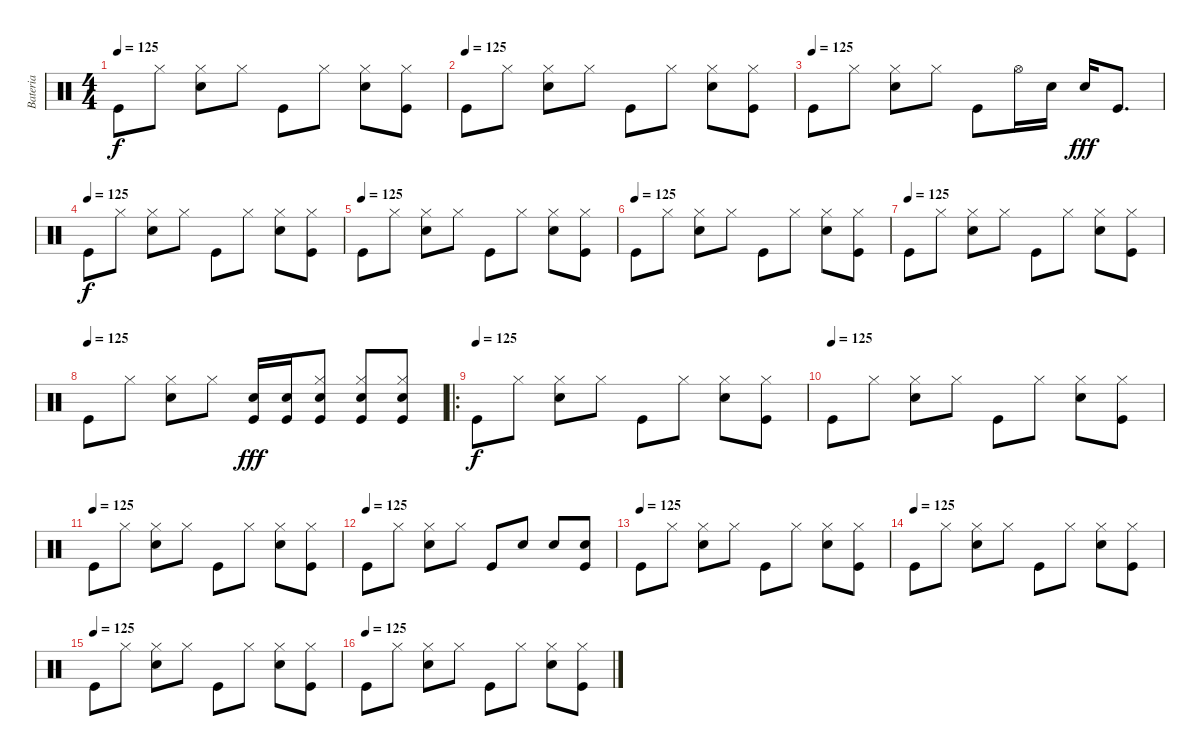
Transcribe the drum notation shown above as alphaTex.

\track ("Bateria" "Bateria") {instrument percussion}
\staff {score}
\articulation defaults
\ts (4 4)
\tempo 125
\clef neutral
\ks c "Kick (hit)".8{dy f} "Hi-Hat (closed)".8
("Snare (hit) 2" "Hi-Hat (closed)").8 "Hi-Hat (closed)".8 "Kick (hit)".8 "Hi-Hat (closed)".8 ("Snare (hit) 2" "Hi-Hat (closed)").8 ("Hi-Hat (closed)" "Kick (hit)").8 |
\tempo (125)
"Kick (hit)".8 "Hi-Hat (closed)".8 ("Snare (hit) 2" "Hi-Hat (closed)").8 "Hi-Hat (closed)".8 "Kick (hit)".8 "Hi-Hat (closed)".8 ("Snare (hit) 2" "Hi-Hat (closed)").8 ("Hi-Hat (closed)" "Kick (hit)").8 |
\tempo (125)
"Kick (hit)".8 "Hi-Hat (closed)".8 ("Snare (hit) 2" "Hi-Hat (closed)").8 "Hi-Hat (closed)".8 "Kick (hit)".8 "Hi-Hat (open)".16 "Snare (hit) 2".16 "Snare (hit) 2".16{dy fff} "Kick (hit)".8{d} |
\tempo (125)
"Kick (hit)".8{dy f} "Hi-Hat (closed)".8 ("Snare (hit) 2" "Hi-Hat (closed)").8 "Hi-Hat (closed)".8 "Kick (hit)".8 "Hi-Hat (closed)".8 ("Snare (hit) 2" "Hi-Hat (closed)").8 ("Hi-Hat (closed)" "Kick (hit)").8 |
\tempo (125)
"Kick (hit)".8 "Hi-Hat (closed)".8 ("Snare (hit) 2" "Hi-Hat (closed)").8 "Hi-Hat (closed)".8 "Kick (hit)".8 "Hi-Hat (closed)".8 ("Snare (hit) 2" "Hi-Hat (closed)").8 ("Hi-Hat (closed)" "Kick (hit)").8 |
\tempo (125)
"Kick (hit)".8 "Hi-Hat (closed)".8 ("Snare (hit) 2" "Hi-Hat (closed)").8 "Hi-Hat (closed)".8 "Kick (hit)".8 "Hi-Hat (closed)".8 ("Snare (hit) 2" "Hi-Hat (closed)").8 ("Hi-Hat (closed)" "Kick (hit)").8 |
\tempo (125)
"Kick (hit)".8 "Hi-Hat (closed)".8 ("Snare (hit) 2" "Hi-Hat (closed)").8 "Hi-Hat (closed)".8 "Kick (hit)".8 "Hi-Hat (closed)".8 ("Snare (hit) 2" "Hi-Hat (closed)").8 ("Hi-Hat (closed)" "Kick (hit)").8 |
\tempo (125)
"Kick (hit)".8 "Hi-Hat (closed)".8 ("Snare (hit) 2" "Hi-Hat (closed)").8 "Hi-Hat (closed)".8 ("Snare (hit) 2" "Kick (hit)").16{dy fff} ("Snare (hit) 2" "Kick (hit)").16 ("Snare (hit) 2" "Hi-Hat (closed)" "Kick (hit)").8 ("Snare (hit) 2" "Hi-Hat (closed)" "Kick (hit)").8 ("Snare (hit) 2" "Hi-Hat (closed)" "Kick (hit)").8 |
\ro
\tempo (125)
"Kick (hit)".8{dy f} "Hi-Hat (closed)".8 ("Snare (hit) 2" "Hi-Hat (closed)").8 "Hi-Hat (closed)".8 "Kick (hit)".8 "Hi-Hat (closed)".8 ("Snare (hit) 2" "Hi-Hat (closed)").8 ("Hi-Hat (closed)" "Kick (hit)").8 |
\tempo (125)
"Kick (hit)".8 "Hi-Hat (closed)".8 ("Snare (hit) 2" "Hi-Hat (closed)").8 "Hi-Hat (closed)".8 "Kick (hit)".8 "Hi-Hat (closed)".8 ("Snare (hit) 2" "Hi-Hat (closed)").8 ("Hi-Hat (closed)" "Kick (hit)").8 |
\tempo (125)
"Kick (hit)".8 "Hi-Hat (closed)".8 ("Snare (hit) 2" "Hi-Hat (closed)").8 "Hi-Hat (closed)".8 "Kick (hit)".8 "Hi-Hat (closed)".8 ("Snare (hit) 2" "Hi-Hat (closed)").8 ("Hi-Hat (closed)" "Kick (hit)").8 |
\tempo (125)
"Kick (hit)".8 "Hi-Hat (closed)".8 ("Snare (hit) 2" "Hi-Hat (closed)").8 "Hi-Hat (closed)".8 "Kick (hit)".8 "Snare (hit) 2".8 "Snare (hit) 2".8 ("Snare (hit) 2" "Kick (hit)").8 |
\tempo (125)
"Kick (hit)".8 "Hi-Hat (closed)".8 ("Snare (hit) 2" "Hi-Hat (closed)").8 "Hi-Hat (closed)".8 "Kick (hit)".8 "Hi-Hat (closed)".8 ("Snare (hit) 2" "Hi-Hat (closed)").8 ("Hi-Hat (closed)" "Kick (hit)").8 |
\tempo (125)
"Kick (hit)".8 "Hi-Hat (closed)".8 ("Snare (hit) 2" "Hi-Hat (closed)").8 "Hi-Hat (closed)".8 "Kick (hit)".8 "Hi-Hat (closed)".8 ("Snare (hit) 2" "Hi-Hat (closed)").8 ("Hi-Hat (closed)" "Kick (hit)").8 |
\tempo (125)
"Kick (hit)".8 "Hi-Hat (closed)".8 ("Snare (hit) 2" "Hi-Hat (closed)").8 "Hi-Hat (closed)".8 "Kick (hit)".8 "Hi-Hat (closed)".8 ("Snare (hit) 2" "Hi-Hat (closed)").8 ("Hi-Hat (closed)" "Kick (hit)").8 |
\tempo (125)
"Kick (hit)".8 "Hi-Hat (closed)".8 ("Snare (hit) 2" "Hi-Hat (closed)").8 "Hi-Hat (closed)".8 "Kick (hit)".8 "Hi-Hat (closed)".8 ("Snare (hit) 2" "Hi-Hat (closed)").8 ("Hi-Hat (closed)" "Kick (hit)").8
